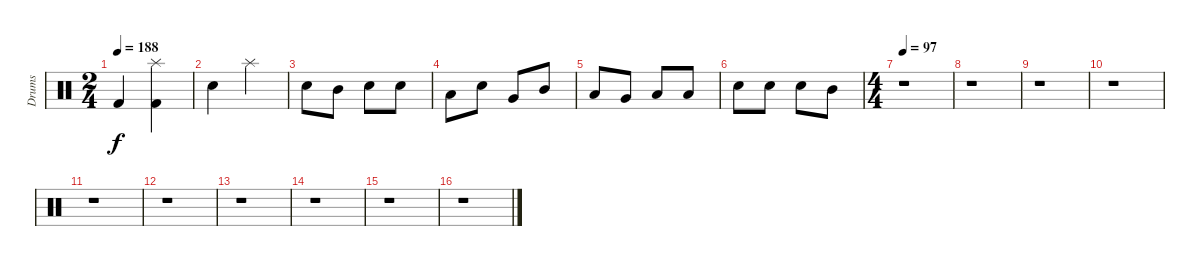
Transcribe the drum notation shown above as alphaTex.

\track ("Drums" "Drums") {instrument percussion}
\staff {score}
\articulation defaults
\ts (2 4)
\tempo 188
\clef neutral
\ks c "Kick (hit) 2".4{dy f}
("Splash (hit)" "Kick (hit) 2").4 |
"Electric Snare (hit)".4 "Splash (hit)".4 |
"Electric Snare (hit)".8 "Mid Tom (hit)".8 "Electric Snare (hit)".8 "Electric Snare (hit)".8 |
"Low Tom (hit)".8 "Electric Snare (hit)".8 "Very Low Tom (hit)".8 "Mid Tom (hit)".8 |
"Low Tom (hit)".8 "Very Low Tom (hit)".8 "Low Floor Tom (hit)".8 "Low Floor Tom (hit)".8 |
"Electric Snare (hit)".8 "Electric Snare (hit)".8 "Electric Snare (hit)".8 "Mid Tom (hit)".8 |
\ts (4 4)
\tempo 97
r.1 |
r.1 |
r.1 |
r.1 |
r.1 |
r.1 |
r.1 |
r.1 |
r.1 |
r.1
